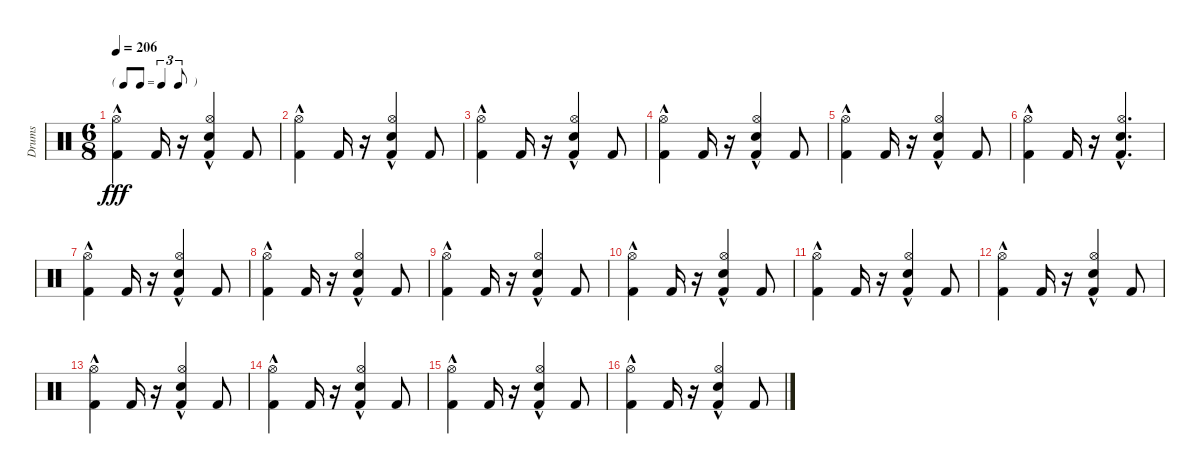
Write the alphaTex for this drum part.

\track ("Drums" "Drums") {instrument percussion}
\staff {score}
\articulation defaults
\ts (6 8)
\tf triplet8th
\tempo 206
\clef neutral
\ks c
("Kick (hit) 2"{hac} "Hi-Hat (open)").4{dy fff} "Kick (hit) 2".16 r.16 ("Snare (hit) 2"{hac} "Kick (hit) 2" "Hi-Hat (open)").4 "Kick (hit) 2".8 |
("Kick (hit) 2"{hac} "Hi-Hat (open)").4 "Kick (hit) 2".16 r.16 ("Snare (hit) 2"{hac} "Kick (hit) 2" "Hi-Hat (open)").4 "Kick (hit) 2".8 |
("Kick (hit) 2"{hac} "Hi-Hat (open)").4 "Kick (hit) 2".16 r.16 ("Snare (hit) 2"{hac} "Kick (hit) 2" "Hi-Hat (open)").4 "Kick (hit) 2".8 |
("Kick (hit) 2"{hac} "Hi-Hat (open)").4 "Kick (hit) 2".16 r.16 ("Snare (hit) 2"{hac} "Kick (hit) 2" "Hi-Hat (open)").4 "Kick (hit) 2".8 |
("Kick (hit) 2"{hac} "Hi-Hat (open)").4 "Kick (hit) 2".16 r.16 ("Snare (hit) 2"{hac} "Kick (hit) 2" "Hi-Hat (open)").4 "Kick (hit) 2".8 |
("Kick (hit) 2"{hac} "Hi-Hat (open)").4 "Kick (hit) 2".16 r.16 ("Snare (hit) 2"{hac} "Kick (hit) 2" "Hi-Hat (open)").4{d} |
("Kick (hit) 2"{hac} "Hi-Hat (open)").4 "Kick (hit) 2".16 r.16 ("Kick (hit) 2" "Hi-Hat (open)" "Snare (hit) 2"{hac}).4 "Kick (hit) 2".8 |
("Hi-Hat (open)" "Kick (hit) 2"{hac}).4 "Kick (hit) 2".16 r.16 ("Hi-Hat (open)" "Snare (hit) 2"{hac} "Kick (hit) 2").4 "Kick (hit) 2".8 |
("Hi-Hat (open)" "Kick (hit) 2"{hac}).4 "Kick (hit) 2".16 r.16 ("Hi-Hat (open)" "Snare (hit) 2"{hac} "Kick (hit) 2").4 "Kick (hit) 2".8 |
("Hi-Hat (open)" "Kick (hit) 2"{hac}).4 "Kick (hit) 2".16 r.16 ("Hi-Hat (open)" "Snare (hit) 2"{hac} "Kick (hit) 2").4 "Kick (hit) 2".8 |
("Hi-Hat (open)" "Kick (hit) 2"{hac}).4 "Kick (hit) 2".16 r.16 ("Hi-Hat (open)" "Snare (hit) 2"{hac} "Kick (hit) 2").4 "Kick (hit) 2".8 |
("Hi-Hat (open)" "Kick (hit) 2"{hac}).4 "Kick (hit) 2".16 r.16 ("Hi-Hat (open)" "Snare (hit) 2"{hac} "Kick (hit) 2").4 "Kick (hit) 2".8 |
("Hi-Hat (open)" "Kick (hit) 2"{hac}).4 "Kick (hit) 2".16 r.16 ("Hi-Hat (open)" "Snare (hit) 2"{hac} "Kick (hit) 2").4 "Kick (hit) 2".8 |
("Hi-Hat (open)" "Kick (hit) 2"{hac}).4 "Kick (hit) 2".16 r.16 ("Hi-Hat (open)" "Snare (hit) 2"{hac} "Kick (hit) 2").4 "Kick (hit) 2".8 |
("Hi-Hat (open)" "Kick (hit) 2"{hac}).4 "Kick (hit) 2".16 r.16 ("Hi-Hat (open)" "Snare (hit) 2"{hac} "Kick (hit) 2").4 "Kick (hit) 2".8 |
("Hi-Hat (open)" "Kick (hit) 2"{hac}).4 "Kick (hit) 2".16 r.16 ("Hi-Hat (open)" "Snare (hit) 2"{hac} "Kick (hit) 2").4 "Kick (hit) 2".8
